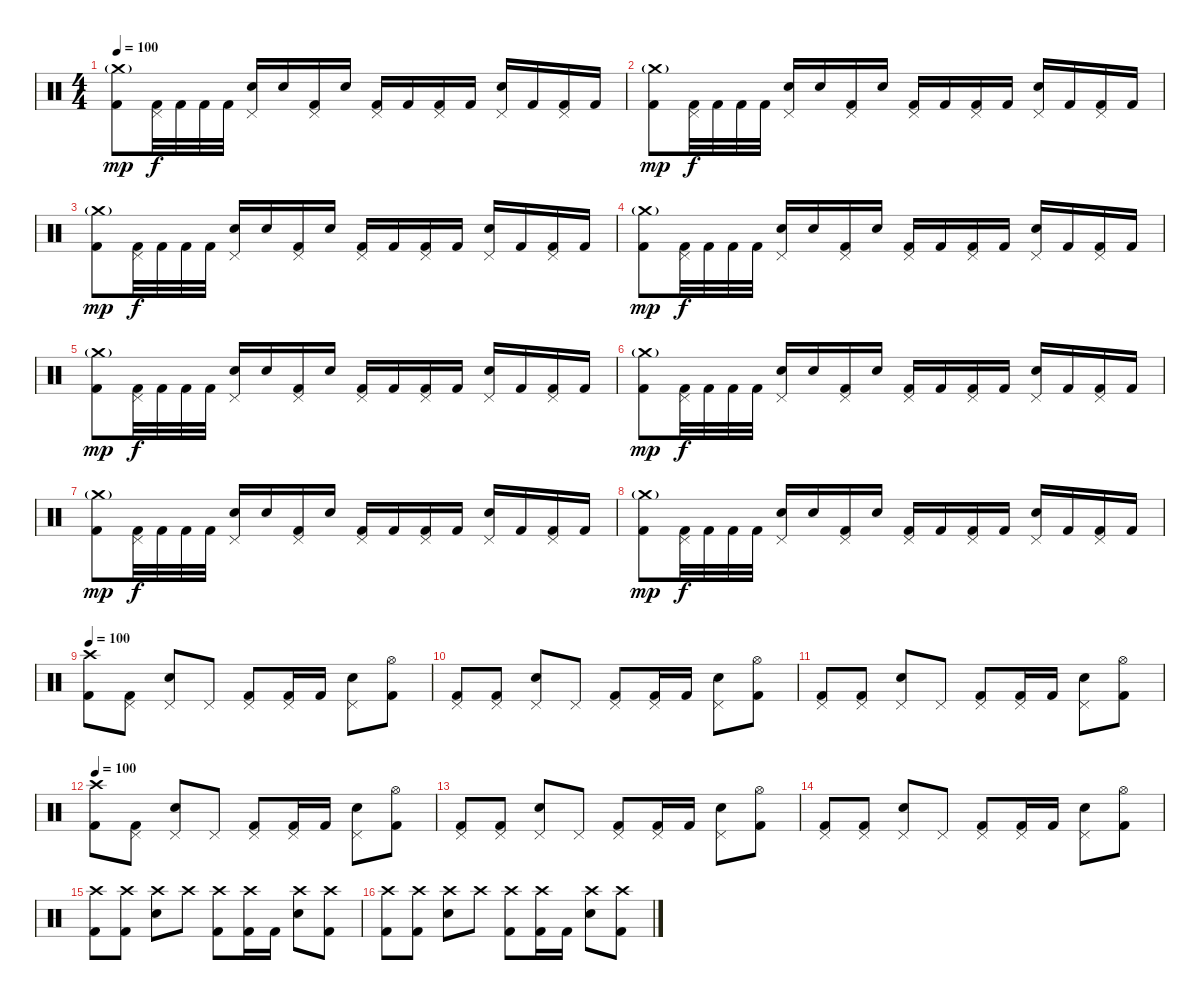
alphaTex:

\track "" {instrument percussion}
\staff {score}
\articulation defaults
\ts (4 4)
\tempo 100
\clef neutral
\ks c
("Crash medium (hit)"{g} "Kick (hit) 2").8{dy mp} ("Pedal Hi-Hat (hit)" "Kick (hit) 2").32{dy f} "Kick (hit) 2".32 "Kick (hit) 2".32 "Kick (hit) 2".32 ("Pedal Hi-Hat (hit)" "Electric Snare (hit)").16 "Electric Snare (hit)".16 ("Pedal Hi-Hat (hit)" "Kick (hit) 2").16 "Electric Snare (hit)".16 ("Pedal Hi-Hat (hit)" "Kick (hit) 2").16 "Kick (hit) 2".16 ("Pedal Hi-Hat (hit)" "Kick (hit) 2").16 "Kick (hit) 2".16 ("Pedal Hi-Hat (hit)" "Electric Snare (hit)").16 "Kick (hit) 2".16 ("Pedal Hi-Hat (hit)" "Kick (hit) 2").16 "Kick (hit) 2".16 |
("Crash medium (hit)"{g} "Kick (hit) 2").8{dy mp} ("Pedal Hi-Hat (hit)" "Kick (hit) 2").32{dy f} "Kick (hit) 2".32 "Kick (hit) 2".32 "Kick (hit) 2".32 ("Pedal Hi-Hat (hit)" "Electric Snare (hit)").16 "Electric Snare (hit)".16 ("Pedal Hi-Hat (hit)" "Kick (hit) 2").16 "Electric Snare (hit)".16 ("Pedal Hi-Hat (hit)" "Kick (hit) 2").16 "Kick (hit) 2".16 ("Pedal Hi-Hat (hit)" "Kick (hit) 2").16 "Kick (hit) 2".16 ("Pedal Hi-Hat (hit)" "Electric Snare (hit)").16 "Kick (hit) 2".16 ("Pedal Hi-Hat (hit)" "Kick (hit) 2").16 "Kick (hit) 2".16 |
("Crash medium (hit)"{g} "Kick (hit) 2").8{dy mp} ("Pedal Hi-Hat (hit)" "Kick (hit) 2").32{dy f} "Kick (hit) 2".32 "Kick (hit) 2".32 "Kick (hit) 2".32 ("Pedal Hi-Hat (hit)" "Electric Snare (hit)").16 "Electric Snare (hit)".16 ("Pedal Hi-Hat (hit)" "Kick (hit) 2").16 "Electric Snare (hit)".16 ("Pedal Hi-Hat (hit)" "Kick (hit) 2").16 "Kick (hit) 2".16 ("Pedal Hi-Hat (hit)" "Kick (hit) 2").16 "Kick (hit) 2".16 ("Pedal Hi-Hat (hit)" "Electric Snare (hit)").16 "Kick (hit) 2".16 ("Pedal Hi-Hat (hit)" "Kick (hit) 2").16 "Kick (hit) 2".16 |
("Crash medium (hit)"{g} "Kick (hit) 2").8{dy mp} ("Pedal Hi-Hat (hit)" "Kick (hit) 2").32{dy f} "Kick (hit) 2".32 "Kick (hit) 2".32 "Kick (hit) 2".32 ("Pedal Hi-Hat (hit)" "Electric Snare (hit)").16 "Electric Snare (hit)".16 ("Pedal Hi-Hat (hit)" "Kick (hit) 2").16 "Electric Snare (hit)".16 ("Pedal Hi-Hat (hit)" "Kick (hit) 2").16 "Kick (hit) 2".16 ("Pedal Hi-Hat (hit)" "Kick (hit) 2").16 "Kick (hit) 2".16 ("Pedal Hi-Hat (hit)" "Electric Snare (hit)").16 "Kick (hit) 2".16 ("Pedal Hi-Hat (hit)" "Kick (hit) 2").16 "Kick (hit) 2".16 |
("Crash medium (hit)"{g} "Kick (hit) 2").8{dy mp} ("Pedal Hi-Hat (hit)" "Kick (hit) 2").32{dy f} "Kick (hit) 2".32 "Kick (hit) 2".32 "Kick (hit) 2".32 ("Pedal Hi-Hat (hit)" "Electric Snare (hit)").16 "Electric Snare (hit)".16 ("Pedal Hi-Hat (hit)" "Kick (hit) 2").16 "Electric Snare (hit)".16 ("Pedal Hi-Hat (hit)" "Kick (hit) 2").16 "Kick (hit) 2".16 ("Pedal Hi-Hat (hit)" "Kick (hit) 2").16 "Kick (hit) 2".16 ("Pedal Hi-Hat (hit)" "Electric Snare (hit)").16 "Kick (hit) 2".16 ("Pedal Hi-Hat (hit)" "Kick (hit) 2").16 "Kick (hit) 2".16 |
("Crash medium (hit)"{g} "Kick (hit) 2").8{dy mp} ("Pedal Hi-Hat (hit)" "Kick (hit) 2").32{dy f} "Kick (hit) 2".32 "Kick (hit) 2".32 "Kick (hit) 2".32 ("Pedal Hi-Hat (hit)" "Electric Snare (hit)").16 "Electric Snare (hit)".16 ("Pedal Hi-Hat (hit)" "Kick (hit) 2").16 "Electric Snare (hit)".16 ("Pedal Hi-Hat (hit)" "Kick (hit) 2").16 "Kick (hit) 2".16 ("Pedal Hi-Hat (hit)" "Kick (hit) 2").16 "Kick (hit) 2".16 ("Pedal Hi-Hat (hit)" "Electric Snare (hit)").16 "Kick (hit) 2".16 ("Pedal Hi-Hat (hit)" "Kick (hit) 2").16 "Kick (hit) 2".16 |
("Crash medium (hit)"{g} "Kick (hit) 2").8{dy mp} ("Pedal Hi-Hat (hit)" "Kick (hit) 2").32{dy f} "Kick (hit) 2".32 "Kick (hit) 2".32 "Kick (hit) 2".32 ("Pedal Hi-Hat (hit)" "Electric Snare (hit)").16 "Electric Snare (hit)".16 ("Pedal Hi-Hat (hit)" "Kick (hit) 2").16 "Electric Snare (hit)".16 ("Pedal Hi-Hat (hit)" "Kick (hit) 2").16 "Kick (hit) 2".16 ("Pedal Hi-Hat (hit)" "Kick (hit) 2").16 "Kick (hit) 2".16 ("Pedal Hi-Hat (hit)" "Electric Snare (hit)").16 "Kick (hit) 2".16 ("Pedal Hi-Hat (hit)" "Kick (hit) 2").16 "Kick (hit) 2".16 |
("Crash medium (hit)"{g} "Kick (hit) 2").8{dy mp} ("Pedal Hi-Hat (hit)" "Kick (hit) 2").32{dy f} "Kick (hit) 2".32 "Kick (hit) 2".32 "Kick (hit) 2".32 ("Pedal Hi-Hat (hit)" "Electric Snare (hit)").16 "Electric Snare (hit)".16 ("Pedal Hi-Hat (hit)" "Kick (hit) 2").16 "Electric Snare (hit)".16 ("Pedal Hi-Hat (hit)" "Kick (hit) 2").16 "Kick (hit) 2".16 ("Pedal Hi-Hat (hit)" "Kick (hit) 2").16 "Kick (hit) 2".16 ("Pedal Hi-Hat (hit)" "Electric Snare (hit)").16 "Kick (hit) 2".16 ("Pedal Hi-Hat (hit)" "Kick (hit) 2").16 "Kick (hit) 2".16 |
\tempo 100
("Crash high (hit)" "Kick (hit) 2").8 ("Pedal Hi-Hat (hit)" "Kick (hit) 2").8 ("Pedal Hi-Hat (hit)" "Electric Snare (hit)").8 "Pedal Hi-Hat (hit)".8 ("Pedal Hi-Hat (hit)" "Kick (hit) 2").8 ("Pedal Hi-Hat (hit)" "Kick (hit) 2").16 "Kick (hit) 2".16 ("Pedal Hi-Hat (hit)" "Electric Snare (hit)").8 ("Hi-Hat (open)" "Kick (hit) 2").8 |
("Pedal Hi-Hat (hit)" "Kick (hit) 2").8 ("Pedal Hi-Hat (hit)" "Kick (hit) 2").8 ("Pedal Hi-Hat (hit)" "Electric Snare (hit)").8 "Pedal Hi-Hat (hit)".8 ("Pedal Hi-Hat (hit)" "Kick (hit) 2").8 ("Pedal Hi-Hat (hit)" "Kick (hit) 2").16 "Kick (hit) 2".16 ("Pedal Hi-Hat (hit)" "Electric Snare (hit)").8 ("Hi-Hat (open)" "Kick (hit) 2").8 |
("Pedal Hi-Hat (hit)" "Kick (hit) 2").8 ("Pedal Hi-Hat (hit)" "Kick (hit) 2").8 ("Pedal Hi-Hat (hit)" "Electric Snare (hit)").8 "Pedal Hi-Hat (hit)".8 ("Pedal Hi-Hat (hit)" "Kick (hit) 2").8 ("Pedal Hi-Hat (hit)" "Kick (hit) 2").16 "Kick (hit) 2".16 ("Pedal Hi-Hat (hit)" "Electric Snare (hit)").8 ("Hi-Hat (open)" "Kick (hit) 2").8 |
\tempo 100
("Crash high (hit)" "Kick (hit) 2").8 ("Pedal Hi-Hat (hit)" "Kick (hit) 2").8 ("Pedal Hi-Hat (hit)" "Electric Snare (hit)").8 "Pedal Hi-Hat (hit)".8 ("Pedal Hi-Hat (hit)" "Kick (hit) 2").8 ("Pedal Hi-Hat (hit)" "Kick (hit) 2").16 "Kick (hit) 2".16 ("Pedal Hi-Hat (hit)" "Electric Snare (hit)").8 ("Hi-Hat (open)" "Kick (hit) 2").8 |
("Pedal Hi-Hat (hit)" "Kick (hit) 2").8 ("Pedal Hi-Hat (hit)" "Kick (hit) 2").8 ("Pedal Hi-Hat (hit)" "Electric Snare (hit)").8 "Pedal Hi-Hat (hit)".8 ("Pedal Hi-Hat (hit)" "Kick (hit) 2").8 ("Pedal Hi-Hat (hit)" "Kick (hit) 2").16 "Kick (hit) 2".16 ("Pedal Hi-Hat (hit)" "Electric Snare (hit)").8 ("Hi-Hat (open)" "Kick (hit) 2").8 |
("Pedal Hi-Hat (hit)" "Kick (hit) 2").8 ("Pedal Hi-Hat (hit)" "Kick (hit) 2").8 ("Pedal Hi-Hat (hit)" "Electric Snare (hit)").8 "Pedal Hi-Hat (hit)".8 ("Pedal Hi-Hat (hit)" "Kick (hit) 2").8 ("Pedal Hi-Hat (hit)" "Kick (hit) 2").16 "Kick (hit) 2".16 ("Pedal Hi-Hat (hit)" "Electric Snare (hit)").8 ("Hi-Hat (open)" "Kick (hit) 2").8 |
("Crash high (hit)" "Kick (hit) 2").8 ("Crash high (hit)" "Kick (hit) 2").8 ("Crash high (hit)" "Electric Snare (hit)").8 "Crash high (hit)".8 ("Crash high (hit)" "Kick (hit) 2").8 ("Crash high (hit)" "Kick (hit) 2").16 "Kick (hit) 2".16 ("Crash high (hit)" "Electric Snare (hit)").8 ("Crash high (hit)" "Kick (hit) 2").8 |
("Crash high (hit)" "Kick (hit) 2").8 ("Crash high (hit)" "Kick (hit) 2").8 ("Crash high (hit)" "Electric Snare (hit)").8 "Crash high (hit)".8 ("Crash high (hit)" "Kick (hit) 2").8 ("Crash high (hit)" "Kick (hit) 2").16 "Kick (hit) 2".16 ("Crash high (hit)" "Electric Snare (hit)").8 ("Crash high (hit)" "Kick (hit) 2").8
